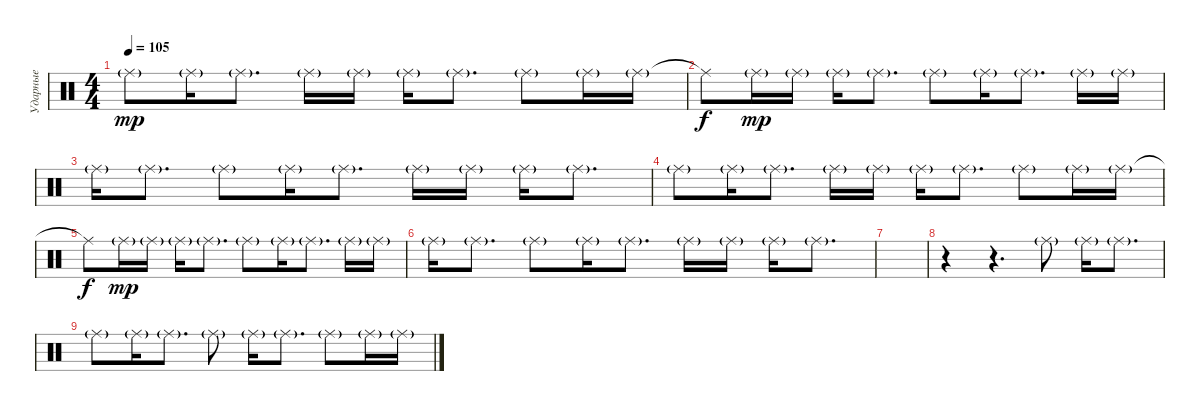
\track ("Ударные" "Ударные") {instrument percussion}
\staff {score}
\articulation defaults
\ts (4 4)
\tempo 105
\clef neutral
\ks c "Ride (middle)"{g}.8{dy mp} "Ride (middle)"{g}.16 "Ride (middle)"{g}.8{d} "Ride (middle)"{g}.16 "Ride (middle)"{g}.16 "Ride (middle)"{g}.16 "Ride (middle)"{g}.8{d} "Ride (middle)"{g}.8 "Ride (middle)"{g}.16 "Ride (middle)"{g}.16
|
"Ride (middle)"{t}.8{dy f} "Ride (middle)"{g}.16{dy mp} "Ride (middle)"{g}.16 "Ride (middle)"{g}.16 "Ride (middle)"{g}.8{d} "Ride (middle)"{g}.8 "Ride (middle)"{g}.16 "Ride (middle)"{g}.8{d} "Ride (middle)"{g}.16 "Ride (middle)"{g}.16 |
"Ride (middle)"{g}.16 "Ride (middle)"{g}.8{d} "Ride (middle)"{g}.8 "Ride (middle)"{g}.16 "Ride (middle)"{g}.8{d} "Ride (middle)"{g}.16 "Ride (middle)"{g}.16 "Ride (middle)"{g}.16 "Ride (middle)"{g}.8{d} |
"Ride (middle)"{g}.8 "Ride (middle)"{g}.16 "Ride (middle)"{g}.8{d} "Ride (middle)"{g}.16 "Ride (middle)"{g}.16 "Ride (middle)"{g}.16 "Ride (middle)"{g}.8{d} "Ride (middle)"{g}.8 "Ride (middle)"{g}.16 "Ride (middle)"{g}.16 |
"Ride (middle)"{t}.8{dy f} "Ride (middle)"{g}.16{dy mp} "Ride (middle)"{g}.16 "Ride (middle)"{g}.16 "Ride (middle)"{g}.8{d} "Ride (middle)"{g}.8 "Ride (middle)"{g}.16 "Ride (middle)"{g}.8{d} "Ride (middle)"{g}.16 "Ride (middle)"{g}.16 |
"Ride (middle)"{g}.16 "Ride (middle)"{g}.8{d} "Ride (middle)"{g}.8 "Ride (middle)"{g}.16 "Ride (middle)"{g}.8{d} "Ride (middle)"{g}.16 "Ride (middle)"{g}.16 "Ride (middle)"{g}.16 "Ride (middle)"{g}.8{d} |
|
r.4 r.4{d} "Ride (middle)"{g}.8 "Ride (middle)"{g}.16 "Ride (middle)"{g}.8{d} |
"Ride (middle)"{g}.8 "Ride (middle)"{g}.16 "Ride (middle)"{g}.8{d} "Ride (middle)"{g}.8 "Ride (middle)"{g}.16 "Ride (middle)"{g}.8{d} "Ride (middle)"{g}.8 "Ride (middle)"{g}.16 "Ride (middle)"{g}.16
